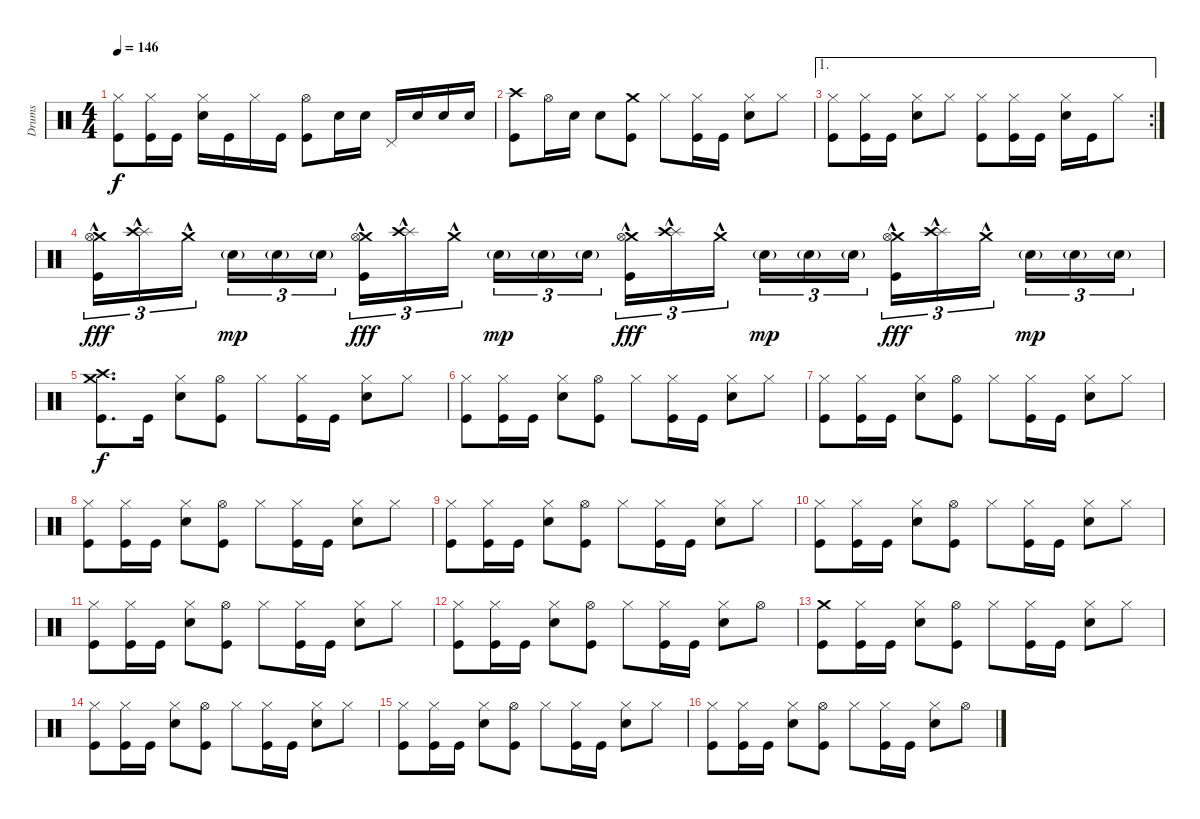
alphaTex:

\track ("Drums" "Drums") {instrument percussion}
\staff {score}
\articulation defaults
\ts (4 4)
\tempo 146
\clef neutral
\ks c
("Hi-Hat (closed)" "Kick (hit)").8{dy f} ("Hi-Hat (closed)" "Kick (hit)").16 "Kick (hit)".16 ("Hi-Hat (closed)" "Electric Snare (hit)").16 "Kick (hit)".16 "Hi-Hat (closed)".16 "Kick (hit)".16 ("Hi-Hat (open)" "Kick (hit)").8 "Electric Snare (hit)".16 "Electric Snare (hit)".16 "Pedal Hi-Hat (hit)".16 "Electric Snare (hit)".16 "Electric Snare (hit)".16 "Electric Snare (hit)".16 |
("Crash high (hit)" "Kick (hit)").8 "Hi-Hat (open)".16 "Electric Snare (hit)".16 "Electric Snare (hit)".8 ("Crash medium (hit)" "Kick (hit)").8 "Hi-Hat (closed)".8 ("Hi-Hat (closed)" "Kick (hit)").16 "Kick (hit)".16 ("Hi-Hat (closed)" "Electric Snare (hit)").8 "Hi-Hat (closed)".8 |
\ae 1
\rc 2
("Hi-Hat (closed)" "Kick (hit)").8 ("Hi-Hat (closed)" "Kick (hit)").16 "Kick (hit)".16 ("Hi-Hat (closed)" "Electric Snare (hit)").8 "Hi-Hat (closed)".8 ("Hi-Hat (closed)" "Kick (hit)").8 ("Hi-Hat (closed)" "Kick (hit)").16 "Kick (hit)".16 ("Hi-Hat (closed)" "Electric Snare (hit)").16 "Kick (hit)".16 "Hi-Hat (closed)".8 |
("Crash medium (hit)"{hac} "Hi-Hat (open)"{hac} "Kick (hit)"{hac}).16{tu (3 2) dy fff} ("Splash (hit)"{hac} "Crash high (hit)"{hac}).16{tu (3 2)} "Crash medium (hit)"{hac}.16{tu (3 2) beam splitsecondary} "Electric Snare (hit)"{g}.16{tu (3 2) dy mp} "Electric Snare (hit)"{g}.16{tu (3 2)} "Electric Snare (hit)"{g}.16{tu (3 2)} ("Crash medium (hit)"{hac} "Hi-Hat (open)"{hac} "Kick (hit)"{hac}).16{tu (3 2) dy fff} ("Splash (hit)"{hac} "Crash high (hit)"{hac}).16{tu (3 2)} "Crash medium (hit)"{hac}.16{tu (3 2) beam splitsecondary} "Electric Snare (hit)"{g}.16{tu (3 2) dy mp} "Electric Snare (hit)"{g}.16{tu (3 2)} "Electric Snare (hit)"{g}.16{tu (3 2)} ("Crash medium (hit)"{hac} "Hi-Hat (open)"{hac} "Kick (hit)"{hac}).16{tu (3 2) dy fff} ("Splash (hit)"{hac} "Crash high (hit)"{hac}).16{tu (3 2)} "Crash medium (hit)"{hac}.16{tu (3 2) beam splitsecondary} "Electric Snare (hit)"{g}.16{tu (3 2) dy mp} "Electric Snare (hit)"{g}.16{tu (3 2)} "Electric Snare (hit)"{g}.16{tu (3 2)} ("Crash medium (hit)"{hac} "Hi-Hat (open)"{hac} "Kick (hit)"{hac}).16{tu (3 2) dy fff} ("Splash (hit)"{hac} "Crash high (hit)"{hac}).16{tu (3 2)} "Crash medium (hit)"{hac}.16{tu (3 2) beam splitsecondary} "Electric Snare (hit)"{g}.16{tu (3 2) dy mp} "Electric Snare (hit)"{g}.16{tu (3 2)} "Electric Snare (hit)"{g}.16{tu (3 2)} |
("Crash medium (hit)" "Crash high (hit)" "Kick (hit)").8{d dy f} "Kick (hit)".16 ("Hi-Hat (closed)" "Electric Snare (hit)").8 ("Hi-Hat (open)" "Kick (hit)").8 "Hi-Hat (closed)".8 ("Hi-Hat (closed)" "Kick (hit)").16 "Kick (hit)".16 ("Hi-Hat (closed)" "Electric Snare (hit)").8 "Hi-Hat (closed)".8 |
("Hi-Hat (closed)" "Kick (hit)").8 ("Hi-Hat (closed)" "Kick (hit)").16 "Kick (hit)".16 ("Hi-Hat (closed)" "Electric Snare (hit)").8 ("Hi-Hat (open)" "Kick (hit)").8 "Hi-Hat (closed)".8 ("Hi-Hat (closed)" "Kick (hit)").16 "Kick (hit)".16 ("Hi-Hat (closed)" "Electric Snare (hit)").8 "Hi-Hat (closed)".8 |
("Hi-Hat (closed)" "Kick (hit)").8 ("Hi-Hat (closed)" "Kick (hit)").16 "Kick (hit)".16 ("Hi-Hat (closed)" "Electric Snare (hit)").8 ("Hi-Hat (open)" "Kick (hit)").8 "Hi-Hat (closed)".8 ("Hi-Hat (closed)" "Kick (hit)").16 "Kick (hit)".16 ("Hi-Hat (closed)" "Electric Snare (hit)").8 "Hi-Hat (closed)".8 |
("Hi-Hat (closed)" "Kick (hit)").8 ("Hi-Hat (closed)" "Kick (hit)").16 "Kick (hit)".16 ("Hi-Hat (closed)" "Electric Snare (hit)").8 ("Hi-Hat (open)" "Kick (hit)").8 "Hi-Hat (closed)".8 ("Hi-Hat (closed)" "Kick (hit)").16 "Kick (hit)".16 ("Hi-Hat (closed)" "Electric Snare (hit)").8 "Hi-Hat (closed)".8 |
("Hi-Hat (closed)" "Kick (hit)").8 ("Hi-Hat (closed)" "Kick (hit)").16 "Kick (hit)".16 ("Hi-Hat (closed)" "Electric Snare (hit)").8 ("Hi-Hat (open)" "Kick (hit)").8 "Hi-Hat (closed)".8 ("Hi-Hat (closed)" "Kick (hit)").16 "Kick (hit)".16 ("Hi-Hat (closed)" "Electric Snare (hit)").8 "Hi-Hat (closed)".8 |
("Hi-Hat (closed)" "Kick (hit)").8 ("Hi-Hat (closed)" "Kick (hit)").16 "Kick (hit)".16 ("Hi-Hat (closed)" "Electric Snare (hit)").8 ("Hi-Hat (open)" "Kick (hit)").8 "Hi-Hat (closed)".8 ("Hi-Hat (closed)" "Kick (hit)").16 "Kick (hit)".16 ("Hi-Hat (closed)" "Electric Snare (hit)").8 "Hi-Hat (closed)".8 |
("Hi-Hat (closed)" "Kick (hit)").8 ("Hi-Hat (closed)" "Kick (hit)").16 "Kick (hit)".16 ("Hi-Hat (closed)" "Electric Snare (hit)").8 ("Hi-Hat (open)" "Kick (hit)").8 "Hi-Hat (closed)".8 ("Hi-Hat (closed)" "Kick (hit)").16 "Kick (hit)".16 ("Hi-Hat (closed)" "Electric Snare (hit)").8 "Hi-Hat (closed)".8 |
("Hi-Hat (closed)" "Kick (hit)").8 ("Hi-Hat (closed)" "Kick (hit)").16 "Kick (hit)".16 ("Hi-Hat (closed)" "Electric Snare (hit)").8 ("Hi-Hat (open)" "Kick (hit)").8 "Hi-Hat (closed)".8 ("Hi-Hat (closed)" "Kick (hit)").16 "Kick (hit)".16 ("Hi-Hat (closed)" "Electric Snare (hit)").8 "Hi-Hat (open)".8 |
("Crash medium (hit)" "Kick (hit)").8 ("Hi-Hat (closed)" "Kick (hit)").16 "Kick (hit)".16 ("Hi-Hat (closed)" "Electric Snare (hit)").8 ("Hi-Hat (open)" "Kick (hit)").8 "Hi-Hat (closed)".8 ("Hi-Hat (closed)" "Kick (hit)").16 "Kick (hit)".16 ("Hi-Hat (closed)" "Electric Snare (hit)").8 "Hi-Hat (closed)".8 |
("Hi-Hat (closed)" "Kick (hit)").8 ("Hi-Hat (closed)" "Kick (hit)").16 "Kick (hit)".16 ("Hi-Hat (closed)" "Electric Snare (hit)").8 ("Hi-Hat (open)" "Kick (hit)").8 "Hi-Hat (closed)".8 ("Hi-Hat (closed)" "Kick (hit)").16 "Kick (hit)".16 ("Hi-Hat (closed)" "Electric Snare (hit)").8 "Hi-Hat (closed)".8 |
("Hi-Hat (closed)" "Kick (hit)").8 ("Hi-Hat (closed)" "Kick (hit)").16 "Kick (hit)".16 ("Hi-Hat (closed)" "Electric Snare (hit)").8 ("Hi-Hat (open)" "Kick (hit)").8 "Hi-Hat (closed)".8 ("Hi-Hat (closed)" "Kick (hit)").16 "Kick (hit)".16 ("Hi-Hat (closed)" "Electric Snare (hit)").8 "Hi-Hat (closed)".8 |
("Hi-Hat (closed)" "Kick (hit)").8 ("Hi-Hat (closed)" "Kick (hit)").16 "Kick (hit)".16 ("Hi-Hat (closed)" "Electric Snare (hit)").8 ("Hi-Hat (open)" "Kick (hit)").8 "Hi-Hat (closed)".8 ("Hi-Hat (closed)" "Kick (hit)").16 "Kick (hit)".16 ("Hi-Hat (closed)" "Electric Snare (hit)").8 "Hi-Hat (open)".8
